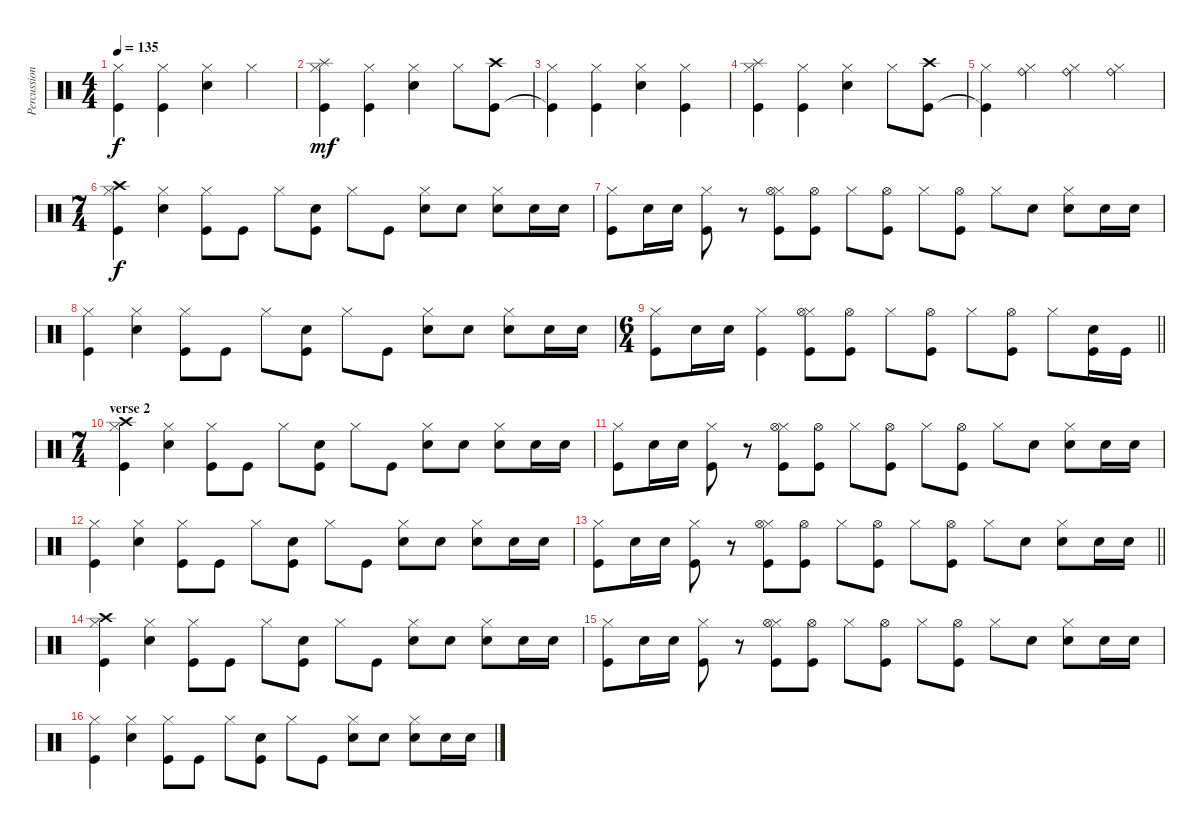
\track ("Percussion" "Percussion") {instrument percussion}
\staff {score}
\articulation defaults
\ts (4 4)
\tempo 135
\clef neutral
\ks c
("Hi-Hat (closed)" "Kick (hit)").4{dy f} ("Hi-Hat (closed)" "Kick (hit)").4 ("Hi-Hat (closed)" "Electric Snare (hit)").4 "Hi-Hat (closed)".4 |
("Splash (hit)" "Hi-Hat (closed)" "Kick (hit)").4{dy mf} ("Hi-Hat (closed)" "Kick (hit)").4 ("Hi-Hat (closed)" "Electric Snare (hit)").4 "Hi-Hat (closed)".8 ("Crash high (hit)" "Kick (hit)").8 |
("Hi-Hat (closed)" "Kick (hit)"{t}).4 ("Hi-Hat (closed)" "Kick (hit)").4 ("Hi-Hat (closed)" "Electric Snare (hit)").4 ("Hi-Hat (closed)" "Kick (hit)").4 |
("Splash (hit)" "Hi-Hat (closed)" "Kick (hit)").4 ("Hi-Hat (closed)" "Kick (hit)").4 ("Hi-Hat (closed)" "Electric Snare (hit)").4 "Hi-Hat (closed)".8 ("Crash high (hit)" "Kick (hit)").8 |
("Hi-Hat (closed)" "Kick (hit)"{t}).4 ("Ride (bell)" "Hi-Hat (closed)").4 ("Ride (bell)" "Hi-Hat (closed)").4 ("Ride (bell)" "Hi-Hat (closed)").4 |
\ts (7 4)
("Crash high (hit)" "Hi-Hat (closed)" "Kick (hit)").4{dy f} ("Hi-Hat (closed)" "Electric Snare (hit)").4 ("Hi-Hat (closed)" "Kick (hit)").8 "Kick (hit)".8 "Hi-Hat (closed)".8 ("Electric Snare (hit)" "Kick (hit)").8 "Hi-Hat (closed)".8 "Kick (hit)".8 ("Hi-Hat (closed)" "Electric Snare (hit)").8 "Hand Clap (hit)".8 ("Hi-Hat (closed)" "Hand Clap (hit)").8 "Electric Snare (hit)".16 "Electric Snare (hit)".16 |
("Hi-Hat (closed)" "Kick (hit)").8 "Electric Snare (hit)".16 "Electric Snare (hit)".16 ("Hi-Hat (closed)" "Kick (hit)").8 r.8 ("Hi-Hat (closed)" "Hi-Hat (open)" "Kick (hit)").8 ("Hi-Hat (open)" "Kick (hit)").8 "Hi-Hat (closed)".8 ("Hi-Hat (open)" "Kick (hit)").8 "Hi-Hat (closed)".8 ("Hi-Hat (open)" "Kick (hit)").8 "Hi-Hat (closed)".8 "Hand Clap (hit)".8 ("Hi-Hat (closed)" "Hand Clap (hit)").8 "Electric Snare (hit)".16 "Electric Snare (hit)".16 |
("Hi-Hat (closed)" "Kick (hit)").4 ("Hi-Hat (closed)" "Electric Snare (hit)").4 ("Hi-Hat (closed)" "Kick (hit)").8 "Kick (hit)".8 "Hi-Hat (closed)".8 ("Electric Snare (hit)" "Kick (hit)").8 "Hi-Hat (closed)".8 "Kick (hit)".8 ("Hi-Hat (closed)" "Electric Snare (hit)").8 "Hand Clap (hit)".8 ("Hi-Hat (closed)" "Hand Clap (hit)").8 "Electric Snare (hit)".16 "Electric Snare (hit)".16 |
\ts (6 4)
\barLineRight lightlight
("Hi-Hat (closed)" "Kick (hit)").8 "Electric Snare (hit)".16 "Electric Snare (hit)".16 ("Hi-Hat (closed)" "Kick (hit)").4 ("Hi-Hat (closed)" "Hi-Hat (open)" "Kick (hit)").8 ("Hi-Hat (open)" "Kick (hit)").8 "Hi-Hat (closed)".8 ("Hi-Hat (open)" "Kick (hit)").8 "Hi-Hat (closed)".8 ("Hi-Hat (open)" "Kick (hit)").8 "Hi-Hat (closed)".8 ("Hand Clap (hit)" "Kick (hit)").16 "Kick (hit)".16 |
\ts (7 4)
\section ("" "verse 2")
("Crash high (hit)" "Hi-Hat (closed)" "Kick (hit)").4 ("Hi-Hat (closed)" "Electric Snare (hit)").4 ("Hi-Hat (closed)" "Kick (hit)").8 "Kick (hit)".8 "Hi-Hat (closed)".8 ("Electric Snare (hit)" "Kick (hit)").8 "Hi-Hat (closed)".8 "Kick (hit)".8 ("Hi-Hat (closed)" "Electric Snare (hit)").8 "Hand Clap (hit)".8 ("Hi-Hat (closed)" "Hand Clap (hit)").8 "Electric Snare (hit)".16 "Electric Snare (hit)".16 |
("Hi-Hat (closed)" "Kick (hit)").8 "Electric Snare (hit)".16 "Electric Snare (hit)".16 ("Hi-Hat (closed)" "Kick (hit)").8 r.8 ("Hi-Hat (closed)" "Hi-Hat (open)" "Kick (hit)").8 ("Hi-Hat (open)" "Kick (hit)").8 "Hi-Hat (closed)".8 ("Hi-Hat (open)" "Kick (hit)").8 "Hi-Hat (closed)".8 ("Hi-Hat (open)" "Kick (hit)").8 "Hi-Hat (closed)".8 "Hand Clap (hit)".8 ("Hi-Hat (closed)" "Hand Clap (hit)").8 "Electric Snare (hit)".16 "Electric Snare (hit)".16 |
("Hi-Hat (closed)" "Kick (hit)").4 ("Hi-Hat (closed)" "Electric Snare (hit)").4 ("Hi-Hat (closed)" "Kick (hit)").8 "Kick (hit)".8 "Hi-Hat (closed)".8 ("Electric Snare (hit)" "Kick (hit)").8 "Hi-Hat (closed)".8 "Kick (hit)".8 ("Hi-Hat (closed)" "Electric Snare (hit)").8 "Hand Clap (hit)".8 ("Hi-Hat (closed)" "Hand Clap (hit)").8 "Electric Snare (hit)".16 "Electric Snare (hit)".16 |
\barLineRight lightlight
("Hi-Hat (closed)" "Kick (hit)").8 "Electric Snare (hit)".16 "Electric Snare (hit)".16 ("Hi-Hat (closed)" "Kick (hit)").8 r.8 ("Hi-Hat (closed)" "Hi-Hat (open)" "Kick (hit)").8 ("Hi-Hat (open)" "Kick (hit)").8 "Hi-Hat (closed)".8 ("Hi-Hat (open)" "Kick (hit)").8 "Hi-Hat (closed)".8 ("Hi-Hat (open)" "Kick (hit)").8 "Hi-Hat (closed)".8 "Hand Clap (hit)".8 ("Hi-Hat (closed)" "Hand Clap (hit)").8 "Electric Snare (hit)".16 "Electric Snare (hit)".16 |
("Crash high (hit)" "Hi-Hat (closed)" "Kick (hit)").4 ("Hi-Hat (closed)" "Electric Snare (hit)").4 ("Hi-Hat (closed)" "Kick (hit)").8 "Kick (hit)".8 "Hi-Hat (closed)".8 ("Electric Snare (hit)" "Kick (hit)").8 "Hi-Hat (closed)".8 "Kick (hit)".8 ("Hi-Hat (closed)" "Electric Snare (hit)").8 "Hand Clap (hit)".8 ("Hi-Hat (closed)" "Hand Clap (hit)").8 "Electric Snare (hit)".16 "Electric Snare (hit)".16 |
("Hi-Hat (closed)" "Kick (hit)").8 "Electric Snare (hit)".16 "Electric Snare (hit)".16 ("Hi-Hat (closed)" "Kick (hit)").8 r.8 ("Hi-Hat (closed)" "Hi-Hat (open)" "Kick (hit)").8 ("Hi-Hat (open)" "Kick (hit)").8 "Hi-Hat (closed)".8 ("Hi-Hat (open)" "Kick (hit)").8 "Hi-Hat (closed)".8 ("Hi-Hat (open)" "Kick (hit)").8 "Hi-Hat (closed)".8 "Hand Clap (hit)".8 ("Hi-Hat (closed)" "Hand Clap (hit)").8 "Electric Snare (hit)".16 "Electric Snare (hit)".16 |
("Hi-Hat (closed)" "Kick (hit)").4 ("Hi-Hat (closed)" "Electric Snare (hit)").4 ("Hi-Hat (closed)" "Kick (hit)").8 "Kick (hit)".8 "Hi-Hat (closed)".8 ("Electric Snare (hit)" "Kick (hit)").8 "Hi-Hat (closed)".8 "Kick (hit)".8 ("Hi-Hat (closed)" "Electric Snare (hit)").8 "Hand Clap (hit)".8 ("Hi-Hat (closed)" "Hand Clap (hit)").8 "Electric Snare (hit)".16 "Electric Snare (hit)".16
